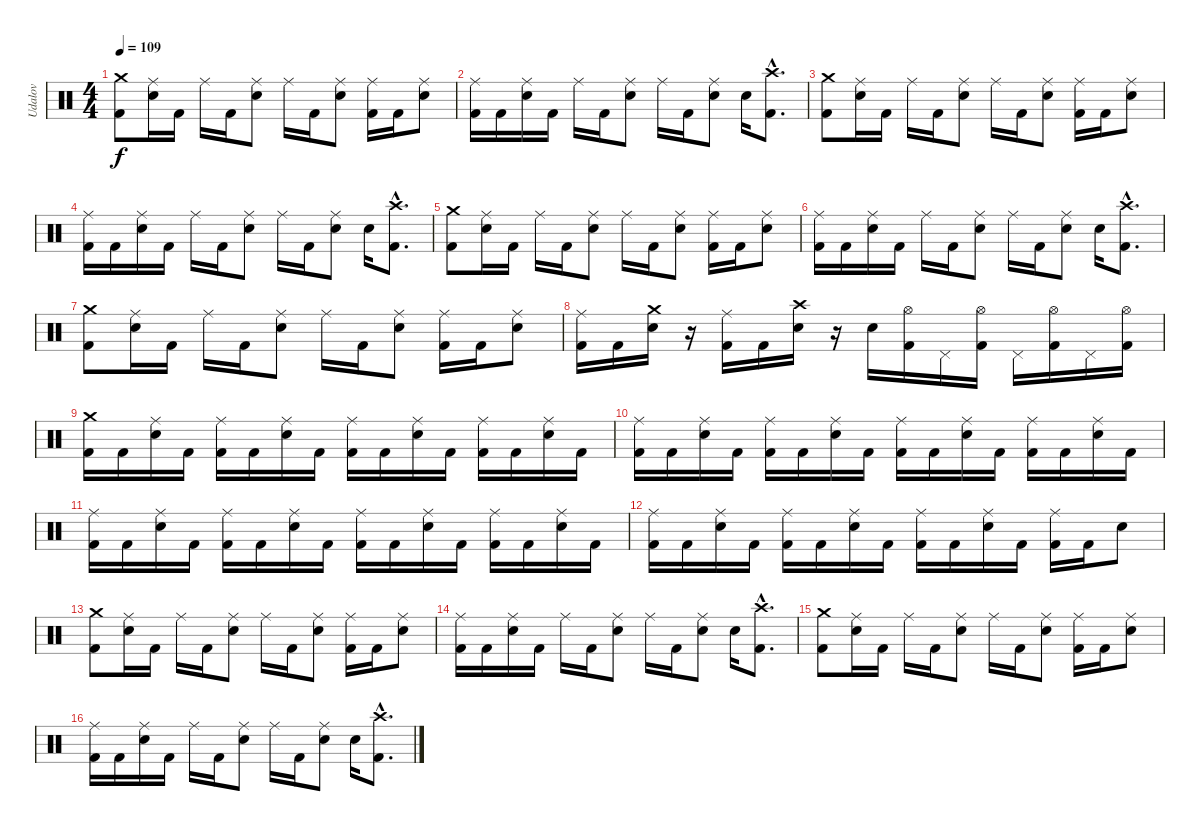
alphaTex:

\track ("Udalov" "Udalov") {instrument percussion}
\staff {score}
\articulation defaults
\ts (4 4)
\tempo 109
\clef neutral
\ks c
("Kick (hit) 2" "Crash medium (hit)").8{dy f} ("Ride (middle)" "Snare (hit) 2").16 "Kick (hit) 2".16 "Ride (middle)".16 "Kick (hit) 2".16 ("Ride (middle)" "Snare (hit) 2").8 "Ride (middle)".16 "Kick (hit) 2".16 ("Ride (middle)" "Snare (hit) 2").8 ("Ride (middle)" "Kick (hit) 2").16 "Kick (hit) 2".16 ("Ride (middle)" "Snare (hit) 2").8 |
("Kick (hit) 2" "Ride (middle)").16 "Kick (hit) 2".16 ("Ride (middle)" "Snare (hit) 2").16 "Kick (hit) 2".16 "Ride (middle)".16 "Kick (hit) 2".16 ("Ride (middle)" "Snare (hit) 2").8 "Ride (middle)".16 "Kick (hit) 2".16 ("Ride (middle)" "Snare (hit) 2").8 "Snare (hit) 2".16 ("Kick (hit) 2"{hac} "Crash high (hit)"{hac}).8{d} |
("Kick (hit) 2" "Crash medium (hit)").8 ("Ride (middle)" "Snare (hit) 2").16 "Kick (hit) 2".16 "Ride (middle)".16 "Kick (hit) 2".16 ("Ride (middle)" "Snare (hit) 2").8 "Ride (middle)".16 "Kick (hit) 2".16 ("Ride (middle)" "Snare (hit) 2").8 ("Ride (middle)" "Kick (hit) 2").16 "Kick (hit) 2".16 ("Ride (middle)" "Snare (hit) 2").8 |
("Kick (hit) 2" "Ride (middle)").16 "Kick (hit) 2".16 ("Ride (middle)" "Snare (hit) 2").16 "Kick (hit) 2".16 "Ride (middle)".16 "Kick (hit) 2".16 ("Ride (middle)" "Snare (hit) 2").8 "Ride (middle)".16 "Kick (hit) 2".16 ("Ride (middle)" "Snare (hit) 2").8 "Snare (hit) 2".16 ("Kick (hit) 2"{hac} "Crash high (hit)"{hac}).8{d} |
("Kick (hit) 2" "Crash medium (hit)").8 ("Ride (middle)" "Snare (hit) 2").16 "Kick (hit) 2".16 "Ride (middle)".16 "Kick (hit) 2".16 ("Ride (middle)" "Snare (hit) 2").8 "Ride (middle)".16 "Kick (hit) 2".16 ("Ride (middle)" "Snare (hit) 2").8 ("Ride (middle)" "Kick (hit) 2").16 "Kick (hit) 2".16 ("Ride (middle)" "Snare (hit) 2").8 |
("Kick (hit) 2" "Ride (middle)").16 "Kick (hit) 2".16 ("Ride (middle)" "Snare (hit) 2").16 "Kick (hit) 2".16 "Ride (middle)".16 "Kick (hit) 2".16 ("Ride (middle)" "Snare (hit) 2").8 "Ride (middle)".16 "Kick (hit) 2".16 ("Ride (middle)" "Snare (hit) 2").8 "Snare (hit) 2".16 ("Kick (hit) 2"{hac} "Crash high (hit)"{hac}).8{d} |
("Kick (hit) 2" "Crash medium (hit)").8 ("Ride (middle)" "Snare (hit) 2").16 "Kick (hit) 2".16 "Ride (middle)".16 "Kick (hit) 2".16 ("Ride (middle)" "Snare (hit) 2").8 "Ride (middle)".16 "Kick (hit) 2".16 ("Ride (middle)" "Snare (hit) 2").8 ("Ride (middle)" "Kick (hit) 2").16 "Kick (hit) 2".16 ("Ride (middle)" "Snare (hit) 2").8 |
("Ride (middle)" "Kick (hit) 2").16 "Kick (hit) 2".16 ("Crash medium (hit)" "Snare (hit) 2").16 r.16 ("Ride (middle)" "Kick (hit) 2").16 "Kick (hit) 2".16 ("Crash high (hit)" "Snare (hit) 2").16 r.16 "Snare (hit) 2".16 ("Hi-Hat (open)" "Kick (hit) 2").16 "Pedal Hi-Hat (hit)".16 ("Hi-Hat (open)" "Kick (hit) 2").16 "Pedal Hi-Hat (hit)".16 ("Hi-Hat (open)" "Kick (hit) 2").16 "Pedal Hi-Hat (hit)".16 ("Hi-Hat (open)" "Kick (hit) 2").16 |
("Kick (hit) 2" "Crash medium (hit)").16 "Kick (hit) 2".16 ("Ride (middle)" "Snare (hit) 2").16 "Kick (hit) 2".16 ("Ride (middle)" "Kick (hit) 2").16 "Kick (hit) 2".16 ("Ride (middle)" "Snare (hit) 2").16 "Kick (hit) 2".16 ("Ride (middle)" "Kick (hit) 2").16 "Kick (hit) 2".16 ("Ride (middle)" "Snare (hit) 2").16 "Kick (hit) 2".16 ("Ride (middle)" "Kick (hit) 2").16 "Kick (hit) 2".16 ("Ride (middle)" "Snare (hit) 2").16 "Kick (hit) 2".16 |
("Kick (hit) 2" "Ride (middle)").16 "Kick (hit) 2".16 ("Snare (hit) 2" "Ride (middle)").16 "Kick (hit) 2".16 ("Kick (hit) 2" "Ride (middle)").16 "Kick (hit) 2".16 ("Snare (hit) 2" "Ride (middle)").16 "Kick (hit) 2".16 ("Kick (hit) 2" "Ride (middle)").16 "Kick (hit) 2".16 ("Snare (hit) 2" "Ride (middle)").16 "Kick (hit) 2".16 ("Kick (hit) 2" "Ride (middle)").16 "Kick (hit) 2".16 ("Snare (hit) 2" "Ride (middle)").16 "Kick (hit) 2".16 |
("Kick (hit) 2" "Ride (middle)").16 "Kick (hit) 2".16 ("Ride (middle)" "Snare (hit) 2").16 "Kick (hit) 2".16 ("Ride (middle)" "Kick (hit) 2").16 "Kick (hit) 2".16 ("Ride (middle)" "Snare (hit) 2").16 "Kick (hit) 2".16 ("Ride (middle)" "Kick (hit) 2").16 "Kick (hit) 2".16 ("Ride (middle)" "Snare (hit) 2").16 "Kick (hit) 2".16 ("Ride (middle)" "Kick (hit) 2").16 "Kick (hit) 2".16 ("Ride (middle)" "Snare (hit) 2").16 "Kick (hit) 2".16 |
("Kick (hit) 2" "Ride (middle)").16 "Kick (hit) 2".16 ("Snare (hit) 2" "Ride (middle)").16 "Kick (hit) 2".16 ("Kick (hit) 2" "Ride (middle)").16 "Kick (hit) 2".16 ("Snare (hit) 2" "Ride (middle)").16 "Kick (hit) 2".16 ("Kick (hit) 2" "Ride (middle)").16 "Kick (hit) 2".16 ("Snare (hit) 2" "Ride (middle)").16 "Kick (hit) 2".16 ("Ride (middle)" "Kick (hit) 2").16 "Kick (hit) 2".16 "Snare (hit) 2".8 |
("Kick (hit) 2" "Crash medium (hit)").8 ("Ride (middle)" "Snare (hit) 2").16 "Kick (hit) 2".16 "Ride (middle)".16 "Kick (hit) 2".16 ("Ride (middle)" "Snare (hit) 2").8 "Ride (middle)".16 "Kick (hit) 2".16 ("Ride (middle)" "Snare (hit) 2").8 ("Ride (middle)" "Kick (hit) 2").16 "Kick (hit) 2".16 ("Ride (middle)" "Snare (hit) 2").8 |
("Kick (hit) 2" "Ride (middle)").16 "Kick (hit) 2".16 ("Ride (middle)" "Snare (hit) 2").16 "Kick (hit) 2".16 "Ride (middle)".16 "Kick (hit) 2".16 ("Ride (middle)" "Snare (hit) 2").8 "Ride (middle)".16 "Kick (hit) 2".16 ("Ride (middle)" "Snare (hit) 2").8 "Snare (hit) 2".16 ("Kick (hit) 2"{hac} "Crash high (hit)"{hac}).8{d} |
("Kick (hit) 2" "Crash medium (hit)").8 ("Ride (middle)" "Snare (hit) 2").16 "Kick (hit) 2".16 "Ride (middle)".16 "Kick (hit) 2".16 ("Ride (middle)" "Snare (hit) 2").8 "Ride (middle)".16 "Kick (hit) 2".16 ("Ride (middle)" "Snare (hit) 2").8 ("Ride (middle)" "Kick (hit) 2").16 "Kick (hit) 2".16 ("Ride (middle)" "Snare (hit) 2").8 |
("Kick (hit) 2" "Ride (middle)").16 "Kick (hit) 2".16 ("Ride (middle)" "Snare (hit) 2").16 "Kick (hit) 2".16 "Ride (middle)".16 "Kick (hit) 2".16 ("Ride (middle)" "Snare (hit) 2").8 "Ride (middle)".16 "Kick (hit) 2".16 ("Ride (middle)" "Snare (hit) 2").8 "Snare (hit) 2".16 ("Kick (hit) 2"{hac} "Crash high (hit)"{hac}).8{d}
